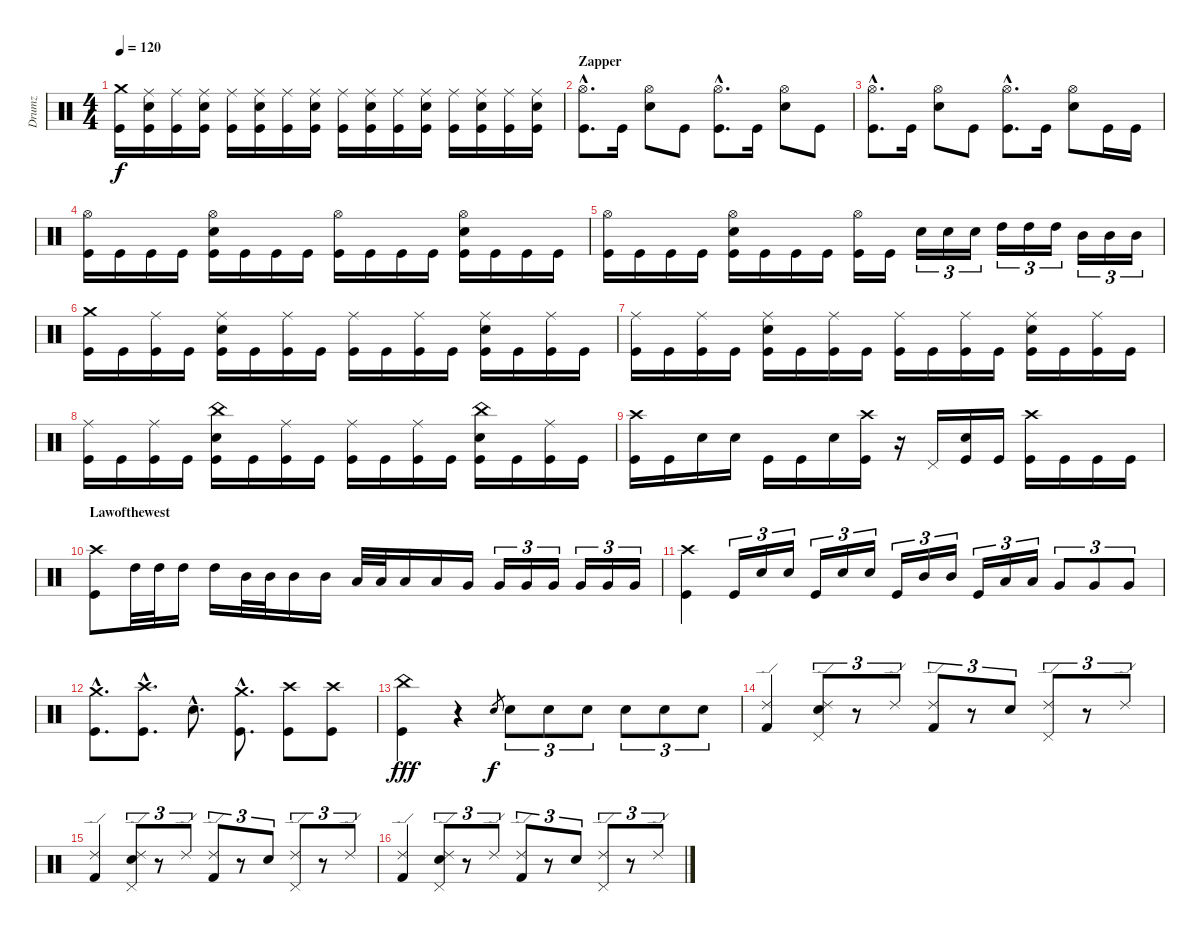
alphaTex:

\track ("Drumz" "Drumz") {instrument percussion}
\staff {score}
\articulation defaults
\ts (4 4)
\tempo 120
\clef neutral
\ks c
("Crash medium (hit)" "Kick (hit)").16{dy f} ("Ride (middle)" "Electric Snare (hit)" "Kick (hit)").16 ("Ride (middle)" "Kick (hit)").16 ("Ride (middle)" "Electric Snare (hit)" "Kick (hit)").16 ("Ride (middle)" "Kick (hit)").16 ("Ride (middle)" "Electric Snare (hit)" "Kick (hit)").16 ("Ride (middle)" "Kick (hit)").16 ("Ride (middle)" "Electric Snare (hit)" "Kick (hit)").16 ("Ride (middle)" "Kick (hit)").16 ("Ride (middle)" "Electric Snare (hit)" "Kick (hit)").16 ("Ride (middle)" "Kick (hit)").16 ("Ride (middle)" "Electric Snare (hit)" "Kick (hit)").16 ("Ride (middle)" "Kick (hit)").16 ("Ride (middle)" "Electric Snare (hit)" "Kick (hit)").16 ("Ride (middle)" "Kick (hit)").16 ("Ride (middle)" "Electric Snare (hit)" "Kick (hit)").16 |
\section ("" "Zapper")
("Hi-Hat (open)"{hac} "Kick (hit)"{hac}).8{d} "Kick (hit)".16 ("Hi-Hat (open)" "Electric Snare (hit)").8 "Kick (hit)".8 ("Hi-Hat (open)"{hac} "Kick (hit)"{hac}).8{d} "Kick (hit)".16 ("Hi-Hat (open)" "Electric Snare (hit)").8 "Kick (hit)".8 |
("Hi-Hat (open)"{hac} "Kick (hit)"{hac}).8{d} "Kick (hit)".16 ("Hi-Hat (open)" "Electric Snare (hit)").8 "Kick (hit)".8 ("Hi-Hat (open)"{hac} "Kick (hit)"{hac}).8{d} "Kick (hit)".16 ("Hi-Hat (open)" "Electric Snare (hit)").8 "Kick (hit)".16 "Kick (hit)".16 |
("Hi-Hat (open)" "Kick (hit)").16 "Kick (hit)".16 "Kick (hit)".16 "Kick (hit)".16 ("Hi-Hat (open)" "Electric Snare (hit)" "Kick (hit)").16 "Kick (hit)".16 "Kick (hit)".16 "Kick (hit)".16 ("Hi-Hat (open)" "Kick (hit)").16 "Kick (hit)".16 "Kick (hit)".16 "Kick (hit)".16 ("Hi-Hat (open)" "Electric Snare (hit)" "Kick (hit)").16 "Kick (hit)".16 "Kick (hit)".16 "Kick (hit)".16 |
("Hi-Hat (open)" "Kick (hit)").16 "Kick (hit)".16 "Kick (hit)".16 "Kick (hit)".16 ("Hi-Hat (open)" "Electric Snare (hit)" "Kick (hit)").16 "Kick (hit)".16 "Kick (hit)".16 "Kick (hit)".16 ("Hi-Hat (open)" "Kick (hit)").16 "Kick (hit)".16 "Electric Snare (hit)".16{tu (3 2)} "Electric Snare (hit)".16{tu (3 2)} "Electric Snare (hit)".16{tu (3 2)} "High Tom (hit)".16{tu (3 2)} "High Tom (hit)".16{tu (3 2)} "High Tom (hit)".16{tu (3 2)} "Mid Tom (hit)".16{tu (3 2)} "Mid Tom (hit)".16{tu (3 2)} "Mid Tom (hit)".16{tu (3 2)} |
("Crash medium (hit)" "Kick (hit)").16 "Kick (hit)".16 ("Ride (middle)" "Kick (hit)").16 "Kick (hit)".16 ("Ride (middle)" "Electric Snare (hit)" "Kick (hit)").16 "Kick (hit)".16 ("Ride (middle)" "Kick (hit)").16 "Kick (hit)".16 ("Ride (middle)" "Kick (hit)").16 "Kick (hit)".16 ("Ride (middle)" "Kick (hit)").16 "Kick (hit)".16 ("Ride (middle)" "Electric Snare (hit)" "Kick (hit)").16 "Kick (hit)".16 ("Ride (middle)" "Kick (hit)").16 "Kick (hit)".16 |
("Ride (middle)" "Kick (hit)").16 "Kick (hit)".16 ("Ride (middle)" "Kick (hit)").16 "Kick (hit)".16 ("Ride (middle)" "Electric Snare (hit)" "Kick (hit)").16 "Kick (hit)".16 ("Ride (middle)" "Kick (hit)").16 "Kick (hit)".16 ("Ride (middle)" "Kick (hit)").16 "Kick (hit)".16 ("Ride (middle)" "Kick (hit)").16 "Kick (hit)".16 ("Ride (middle)" "Electric Snare (hit)" "Kick (hit)").16 "Kick (hit)".16 ("Ride (middle)" "Kick (hit)").16 "Kick (hit)".16 |
("Ride (middle)" "Kick (hit)").16 "Kick (hit)".16 ("Ride (middle)" "Kick (hit)").16 "Kick (hit)".16 ("China (hit)" "Electric Snare (hit)" "Kick (hit)").16 "Kick (hit)".16 ("Ride (middle)" "Kick (hit)").16 "Kick (hit)".16 ("Ride (middle)" "Kick (hit)").16 "Kick (hit)".16 ("Ride (middle)" "Kick (hit)").16 "Kick (hit)".16 ("China (hit)" "Electric Snare (hit)" "Kick (hit)").16 "Kick (hit)".16 ("Ride (middle)" "Kick (hit)").16 "Kick (hit)".16 |
("Crash high (hit)" "Kick (hit)").16 "Kick (hit)".16 "Electric Snare (hit)".16 "Electric Snare (hit)".16 "Kick (hit)".16 "Kick (hit)".16 "Electric Snare (hit)".16 ("Crash high (hit)" "Kick (hit)").16 r.16 "Pedal Hi-Hat (hit)".16 ("Electric Snare (hit)" "Kick (hit)").16 "Kick (hit)".16 ("Crash high (hit)" "Kick (hit)").16 "Kick (hit)".16 "Kick (hit)".16 "Kick (hit)".16 |
\section ("" "Lawofthewest")
("Crash high (hit)" "Kick (hit)").8 "High Tom (hit)".32 "High Tom (hit)".32 "High Tom (hit)".16 "High Tom (hit)".16 "Mid Tom (hit)".32 "Mid Tom (hit)".32 "Mid Tom (hit)".16 "Mid Tom (hit)".16 "Low Tom (hit)".32 "Low Tom (hit)".32 "Low Tom (hit)".16 "Low Tom (hit)".16 "Very Low Tom (hit)".16 "Very Low Tom (hit)".16{tu (3 2)} "Very Low Tom (hit)".16{tu (3 2)} "Very Low Tom (hit)".16{tu (3 2)} "Very Low Tom (hit)".16{tu (3 2)} "Very Low Tom (hit)".16{tu (3 2)} "Very Low Tom (hit)".16{tu (3 2)} |
("Crash high (hit)" "Kick (hit)").4 "Kick (hit)".16{tu (3 2)} "Snare (hit) 2".16{tu (3 2)} "Snare (hit) 2".16{tu (3 2)} "Kick (hit)".16{tu (3 2)} "Snare (hit) 2".16{tu (3 2)} "Snare (hit) 2".16{tu (3 2)} "Kick (hit)".16{tu (3 2)} "Mid Tom (hit)".16{tu (3 2)} "Mid Tom (hit)".16{tu (3 2)} "Kick (hit)".16{tu (3 2)} "Low Tom (hit)".16{tu (3 2)} "Low Tom (hit)".16{tu (3 2)} "Very Low Tom (hit)".8{tu (3 2)} "Very Low Tom (hit)".8{tu (3 2)} "Very Low Tom (hit)".8{tu (3 2)} |
("Crash medium (hit)"{hac} "Kick (hit)"{hac}).8{d} ("Crash high (hit)"{hac} "Kick (hit)"{hac}).8{d} "Snare (hit) 2"{hac}.8{d} ("Crash medium (hit)"{hac} "Kick (hit)"{hac}).8{d} ("Crash high (hit)" "Kick (hit)").8 ("Crash high (hit)" "Kick (hit)").8 |
("China (hit)" "Kick (hit)").4{dy fff} r.4 "Snare (hit) 2".8{gr dy f} "Snare (hit) 2".8{tu (3 2)} "Snare (hit) 2".8{tu (3 2)} "Snare (hit) 2".8{tu (3 2)} "Snare (hit) 2".8{tu (3 2)} "Snare (hit) 2".8{tu (3 2)} "Snare (hit) 2".8{tu (3 2)} |
("Ride (edge) 2" "Kick (hit) 2").4 ("Ride (edge) 2" "Pedal Hi-Hat (hit)" "Snare (hit) 2").8{tu (3 2)} r.8{tu (3 2)} "Ride (edge) 2".8{tu (3 2)} ("Ride (edge) 2" "Kick (hit) 2").8{tu (3 2)} r.8{tu (3 2)} "Snare (hit) 2".8{tu (3 2)} ("Ride (edge) 2" "Pedal Hi-Hat (hit)").8{tu (3 2)} r.8{tu (3 2)} "Ride (edge) 2".8{tu (3 2)} |
("Ride (edge) 2" "Kick (hit) 2").4 ("Ride (edge) 2" "Pedal Hi-Hat (hit)" "Snare (hit) 2").8{tu (3 2)} r.8{tu (3 2)} "Ride (edge) 2".8{tu (3 2)} ("Ride (edge) 2" "Kick (hit) 2").8{tu (3 2)} r.8{tu (3 2)} "Snare (hit) 2".8{tu (3 2)} ("Ride (edge) 2" "Pedal Hi-Hat (hit)").8{tu (3 2)} r.8{tu (3 2)} "Ride (edge) 2".8{tu (3 2)} |
("Ride (edge) 2" "Kick (hit) 2").4 ("Ride (edge) 2" "Pedal Hi-Hat (hit)" "Snare (hit) 2").8{tu (3 2)} r.8{tu (3 2)} "Ride (edge) 2".8{tu (3 2)} ("Ride (edge) 2" "Kick (hit) 2").8{tu (3 2)} r.8{tu (3 2)} "Snare (hit) 2".8{tu (3 2)} ("Ride (edge) 2" "Pedal Hi-Hat (hit)").8{tu (3 2)} r.8{tu (3 2)} "Ride (edge) 2".8{tu (3 2)}
